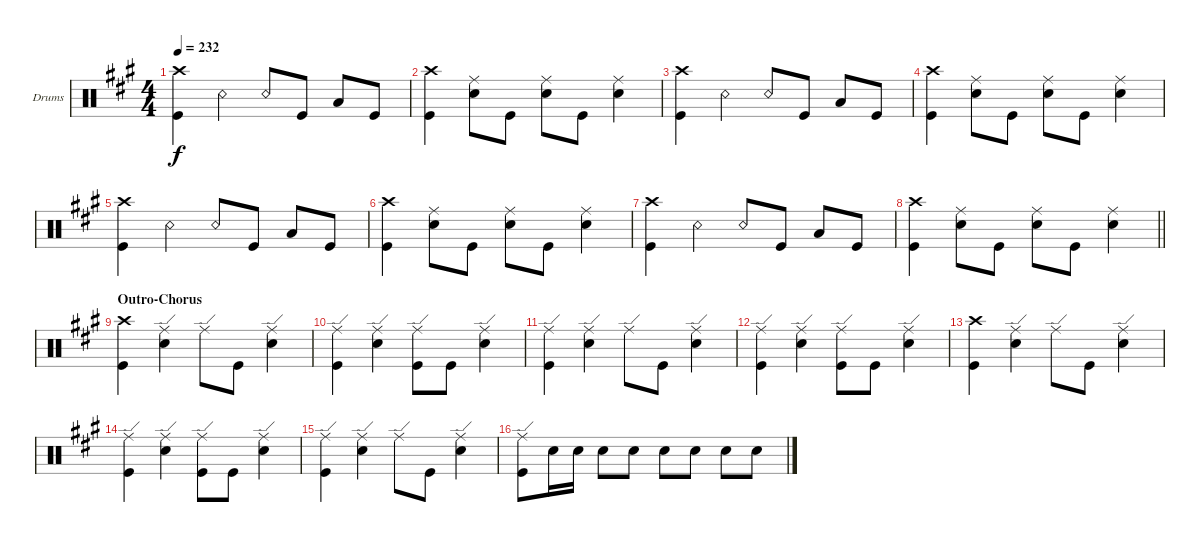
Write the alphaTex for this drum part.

\defaultSystemsLayout 4
\bracketExtendMode groupsimilarinstruments
\firstSystemTrackNameOrientation horizontal
\otherSystemsTrackNameOrientation horizontal
\track ("Drums" "Drums") {instrument percussion}
\staff {score}
\articulation defaults
\ts (4 4)
\tempo 232
\clef neutral
\ks a
("Kick (hit)" "Crash high (hit)").4{dy f} "Snare (rim shot)".4 "Snare (rim shot)".8 "Kick (hit)".8 "Low Tom (hit)".8 "Kick (hit)".8 |
("Kick (hit)" "Crash high (hit)").4 ("Snare (hit) 2" "Ride (middle)").8 "Kick (hit)".8 ("Snare (hit) 2" "Ride (middle)").8 "Kick (hit)".8 ("Ride (middle)" "Snare (hit) 2").4 |
("Kick (hit)" "Crash high (hit)").4 "Snare (rim shot)".4 "Snare (rim shot)".8 "Kick (hit)".8 "Low Tom (hit)".8 "Kick (hit)".8 |
("Kick (hit)" "Crash high (hit)").4 ("Snare (hit) 2" "Ride (middle)").8 "Kick (hit)".8 ("Snare (hit) 2" "Ride (middle)").8 "Kick (hit)".8 ("Ride (middle)" "Snare (hit) 2").4 |
("Kick (hit)" "Crash high (hit)").4 "Snare (rim shot)".4 "Snare (rim shot)".8 "Kick (hit)".8 "Low Tom (hit)".8 "Kick (hit)".8 |
("Kick (hit)" "Crash high (hit)").4 ("Snare (hit) 2" "Ride (middle)").8 "Kick (hit)".8 ("Snare (hit) 2" "Ride (middle)").8 "Kick (hit)".8 ("Ride (middle)" "Snare (hit) 2").4 |
("Kick (hit)" "Crash high (hit)").4 "Snare (rim shot)".4 "Snare (rim shot)".8 "Kick (hit)".8 "Low Tom (hit)".8 "Kick (hit)".8 |
\barLineRight lightlight
("Kick (hit)" "Crash high (hit)").4 ("Snare (hit) 2" "Ride (middle)").8 "Kick (hit)".8 ("Snare (hit) 2" "Ride (middle)").8 "Kick (hit)".8 ("Ride (middle)" "Snare (hit) 2").4 |
\section ("" "Outro-Chorus")
("Kick (hit)" "Crash high (hit)").4 ("Snare (hit) 2" "Ride (edge)").4 "Ride (edge)".8 "Kick (hit)".8 ("Snare (hit) 2" "Ride (edge)").4 |
("Kick (hit)" "Ride (edge)").4 ("Snare (hit) 2" "Ride (edge)").4 ("Ride (edge)" "Kick (hit)").8 "Kick (hit)".8 ("Snare (hit) 2" "Ride (edge)").4 |
("Kick (hit)" "Ride (edge)").4 ("Snare (hit) 2" "Ride (edge)").4 "Ride (edge)".8 "Kick (hit)".8 ("Snare (hit) 2" "Ride (edge)").4 |
("Kick (hit)" "Ride (edge)").4 ("Snare (hit) 2" "Ride (edge)").4 ("Kick (hit)" "Ride (edge)").8 "Kick (hit)".8 ("Snare (hit) 2" "Ride (edge)").4 |
("Kick (hit)" "Crash high (hit)").4 ("Snare (hit) 2" "Ride (edge)").4 "Ride (edge)".8 "Kick (hit)".8 ("Snare (hit) 2" "Ride (edge)").4 |
("Kick (hit)" "Ride (edge)").4 ("Snare (hit) 2" "Ride (edge)").4 ("Kick (hit)" "Ride (edge)").8 "Kick (hit)".8 ("Snare (hit) 2" "Ride (edge)").4 |
("Kick (hit)" "Ride (edge)").4 ("Snare (hit) 2" "Ride (edge)").4 "Ride (edge)".8 "Kick (hit)".8 ("Snare (hit) 2" "Ride (edge)").4 |
("Kick (hit)" "Ride (edge)").8 "Snare (hit) 2".16 "Snare (hit) 2".16 "Snare (hit) 2".8 "Snare (hit) 2".8 "Snare (hit) 2".8 "Snare (hit) 2".8 "Snare (hit) 2".8 "Snare (hit) 2".8
